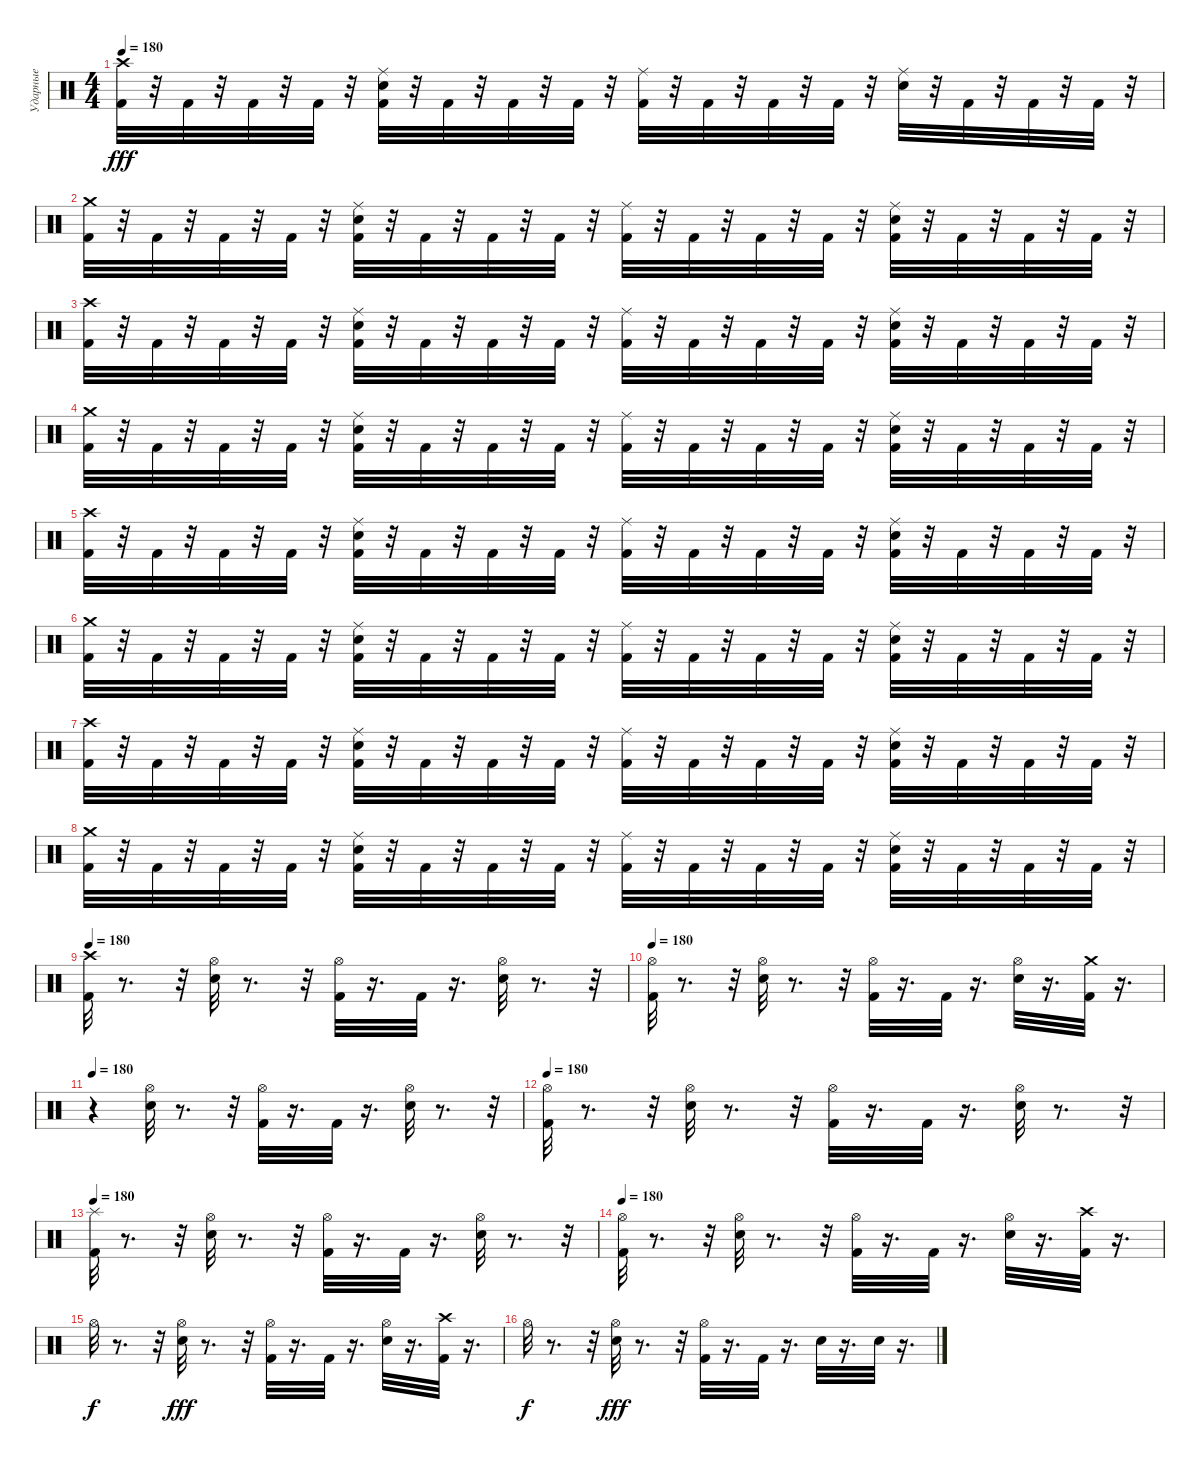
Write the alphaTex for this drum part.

\track ("Ударные" "Ударные") {instrument percussion}
\staff {score}
\articulation defaults
\ts (4 4)
\tempo 180
\clef neutral
\ks c
("Kick (hit) 2" "Crash high (hit)").32{dy fff} r.32 "Kick (hit) 2".32 r.32 "Kick (hit) 2".32 r.32 "Kick (hit) 2".32 r.32 ("Kick (hit) 2" "Snare (hit) 2" "Ride (middle)").32 r.32 "Kick (hit) 2".32 r.32 "Kick (hit) 2".32 r.32 "Kick (hit) 2".32 r.32 ("Kick (hit) 2" "Ride (middle)").32 r.32 "Kick (hit) 2".32 r.32 "Kick (hit) 2".32 r.32 "Kick (hit) 2".32 r.32 ("Ride (middle)" "Snare (hit) 2").32 r.32 "Kick (hit) 2".32 r.32 "Kick (hit) 2".32 r.32 "Kick (hit) 2".32 r.32 |
("Kick (hit) 2" "Crash medium (hit)").32 r.32 "Kick (hit) 2".32 r.32 "Kick (hit) 2".32 r.32 "Kick (hit) 2".32 r.32 ("Kick (hit) 2" "Snare (hit) 2" "Ride (middle)").32 r.32 "Kick (hit) 2".32 r.32 "Kick (hit) 2".32 r.32 "Kick (hit) 2".32 r.32 ("Ride (middle)" "Kick (hit) 2").32 r.32 "Kick (hit) 2".32 r.32 "Kick (hit) 2".32 r.32 "Kick (hit) 2".32 r.32 ("Ride (middle)" "Kick (hit) 2" "Snare (hit) 2").32 r.32 "Kick (hit) 2".32 r.32 "Kick (hit) 2".32 r.32 "Kick (hit) 2".32 r.32 |
("Kick (hit) 2" "Crash high (hit)").32 r.32 "Kick (hit) 2".32 r.32 "Kick (hit) 2".32 r.32 "Kick (hit) 2".32 r.32 ("Kick (hit) 2" "Ride (middle)" "Snare (hit) 2").32 r.32 "Kick (hit) 2".32 r.32 "Kick (hit) 2".32 r.32 "Kick (hit) 2".32 r.32 ("Kick (hit) 2" "Ride (middle)").32 r.32 "Kick (hit) 2".32 r.32 "Kick (hit) 2".32 r.32 "Kick (hit) 2".32 r.32 ("Ride (middle)" "Snare (hit) 2" "Kick (hit) 2").32 r.32 "Kick (hit) 2".32 r.32 "Kick (hit) 2".32 r.32 "Kick (hit) 2".32 r.32 |
("Crash medium (hit)" "Kick (hit) 2").32 r.32 "Kick (hit) 2".32 r.32 "Kick (hit) 2".32 r.32 "Kick (hit) 2".32 r.32 ("Kick (hit) 2" "Snare (hit) 2" "Ride (middle)").32 r.32 "Kick (hit) 2".32 r.32 "Kick (hit) 2".32 r.32 "Kick (hit) 2".32 r.32 ("Ride (middle)" "Kick (hit) 2").32 r.32 "Kick (hit) 2".32 r.32 "Kick (hit) 2".32 r.32 "Kick (hit) 2".32 r.32 ("Snare (hit) 2" "Kick (hit) 2" "Ride (middle)").32 r.32 "Kick (hit) 2".32 r.32 "Kick (hit) 2".32 r.32 "Kick (hit) 2".32 r.32 |
("Kick (hit) 2" "Crash high (hit)").32 r.32 "Kick (hit) 2".32 r.32 "Kick (hit) 2".32 r.32 "Kick (hit) 2".32 r.32 ("Kick (hit) 2" "Snare (hit) 2" "Ride (middle)").32 r.32 "Kick (hit) 2".32 r.32 "Kick (hit) 2".32 r.32 "Kick (hit) 2".32 r.32 ("Ride (middle)" "Kick (hit) 2").32 r.32 "Kick (hit) 2".32 r.32 "Kick (hit) 2".32 r.32 "Kick (hit) 2".32 r.32 ("Snare (hit) 2" "Ride (middle)" "Kick (hit) 2").32 r.32 "Kick (hit) 2".32 r.32 "Kick (hit) 2".32 r.32 "Kick (hit) 2".32 r.32 |
("Crash medium (hit)" "Kick (hit) 2").32 r.32 "Kick (hit) 2".32 r.32 "Kick (hit) 2".32 r.32 "Kick (hit) 2".32 r.32 ("Ride (middle)" "Kick (hit) 2" "Snare (hit) 2").32 r.32 "Kick (hit) 2".32 r.32 "Kick (hit) 2".32 r.32 "Kick (hit) 2".32 r.32 ("Kick (hit) 2" "Ride (middle)").32 r.32 "Kick (hit) 2".32 r.32 "Kick (hit) 2".32 r.32 "Kick (hit) 2".32 r.32 ("Ride (middle)" "Snare (hit) 2" "Kick (hit) 2").32 r.32 "Kick (hit) 2".32 r.32 "Kick (hit) 2".32 r.32 "Kick (hit) 2".32 r.32 |
("Crash high (hit)" "Kick (hit) 2").32 r.32 "Kick (hit) 2".32 r.32 "Kick (hit) 2".32 r.32 "Kick (hit) 2".32 r.32 ("Ride (middle)" "Kick (hit) 2" "Snare (hit) 2").32 r.32 "Kick (hit) 2".32 r.32 "Kick (hit) 2".32 r.32 "Kick (hit) 2".32 r.32 ("Kick (hit) 2" "Ride (middle)").32 r.32 "Kick (hit) 2".32 r.32 "Kick (hit) 2".32 r.32 "Kick (hit) 2".32 r.32 ("Snare (hit) 2" "Ride (middle)" "Kick (hit) 2").32 r.32 "Kick (hit) 2".32 r.32 "Kick (hit) 2".32 r.32 "Kick (hit) 2".32 r.32 |
("Kick (hit) 2" "Crash medium (hit)").32 r.32 "Kick (hit) 2".32 r.32 "Kick (hit) 2".32 r.32 "Kick (hit) 2".32 r.32 ("Kick (hit) 2" "Ride (middle)" "Snare (hit) 2").32 r.32 "Kick (hit) 2".32 r.32 "Kick (hit) 2".32 r.32 "Kick (hit) 2".32 r.32 ("Kick (hit) 2" "Ride (middle)").32 r.32 "Kick (hit) 2".32 r.32 "Kick (hit) 2".32 r.32 "Kick (hit) 2".32 r.32 ("Kick (hit) 2" "Ride (middle)" "Snare (hit) 2").32 r.32 "Kick (hit) 2".32 r.32 "Kick (hit) 2".32 r.32 "Kick (hit) 2".32 r.32 |
\tempo 180
("Kick (hit) 2" "Crash high (hit)").32 r.8{d} r.32 ("Hi-Hat (open)" "Snare (hit) 2").32 r.8{d} r.32 ("Kick (hit) 2" "Hi-Hat (open)").32 r.16{d} "Kick (hit) 2".32 r.16{d} ("Snare (hit) 2" "Hi-Hat (open)").32 r.8{d} r.32 |
\tempo 180
("Hi-Hat (open)" "Kick (hit) 2").32 r.8{d} r.32 ("Snare (hit) 2" "Hi-Hat (open)").32 r.8{d} r.32 ("Kick (hit) 2" "Hi-Hat (open)").32 r.16{d} "Kick (hit) 2".32 r.16{d} ("Hi-Hat (open)" "Snare (hit) 2").32 r.16{d} ("Kick (hit) 2" "Crash medium (hit)").32 r.16{d} |
\tempo 180
r.4 ("Snare (hit) 2" "Hi-Hat (open)").32 r.8{d} r.32 ("Kick (hit) 2" "Hi-Hat (open)").32 r.16{d} "Kick (hit) 2".32 r.16{d} ("Hi-Hat (open)" "Snare (hit) 2").32 r.8{d} r.32 |
\tempo 180
("Kick (hit) 2" "Hi-Hat (open)").32 r.8{d} r.32 ("Hi-Hat (open)" "Snare (hit) 2").32 r.8{d} r.32 ("Kick (hit) 2" "Hi-Hat (open)").32 r.16{d} "Kick (hit) 2".32 r.16{d} ("Hi-Hat (open)" "Snare (hit) 2").32 r.8{d} r.32 |
\tempo 180
("Kick (hit) 2" "Splash (hit)").32 r.8{d} r.32 ("Hi-Hat (open)" "Snare (hit) 2").32 r.8{d} r.32 ("Hi-Hat (open)" "Kick (hit) 2").32 r.16{d} "Kick (hit) 2".32 r.16{d} ("Snare (hit) 2" "Hi-Hat (open)").32 r.8{d} r.32 |
\tempo 180
("Kick (hit) 2" "Hi-Hat (open)").32 r.8{d} r.32 ("Snare (hit) 2" "Hi-Hat (open)").32 r.8{d} r.32 ("Hi-Hat (open)" "Kick (hit) 2").32 r.16{d} "Kick (hit) 2".32 r.16{d} ("Snare (hit) 2" "Hi-Hat (open)").32 r.16{d} ("Crash high (hit)" "Kick (hit) 2").32 r.16{d} |
"Hi-Hat (open)".32{dy f} r.8{d} r.32 ("Hi-Hat (open)" "Snare (hit) 2").32{dy fff} r.8{d} r.32 ("Kick (hit) 2" "Hi-Hat (open)").32 r.16{d} "Kick (hit) 2".32 r.16{d} ("Hi-Hat (open)" "Snare (hit) 2").32 r.16{d} ("Kick (hit) 2" "Crash high (hit)").32 r.16{d} |
"Hi-Hat (open)".32{dy f} r.8{d} r.32 ("Hi-Hat (open)" "Snare (hit) 2").32{dy fff} r.8{d} r.32 ("Hi-Hat (open)" "Kick (hit) 2").32 r.16{d} "Kick (hit) 2".32 r.16{d} "Snare (hit) 2".32 r.16{d} "Snare (hit) 2".32 r.16{d}
